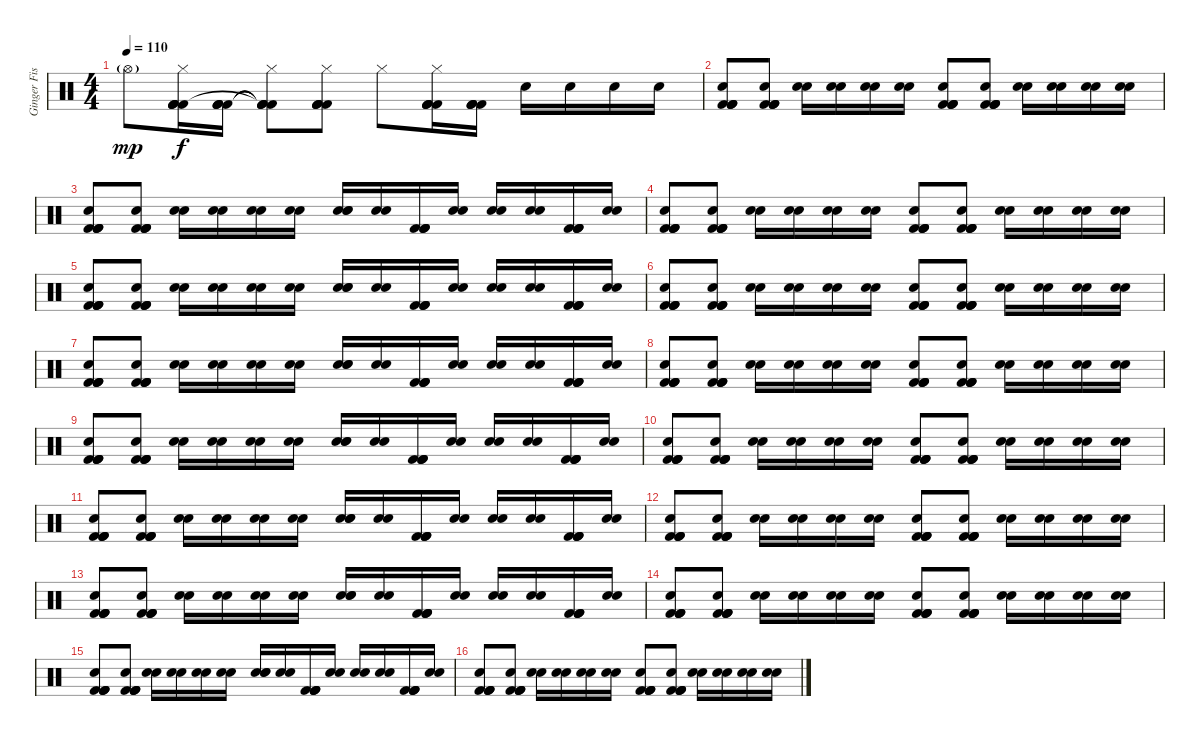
\track ("Ginger Fish" "Ginger Fis") {instrument percussion}
\staff {score}
\articulation defaults
\ts (4 4)
\tempo 110
\clef neutral
\ks c "Hi-Hat (open)"{g}.8{dy mp}
("Hi-Hat (closed)" "Kick (hit) 2" "Kick (hit) 2" "Kick (hit) 2" "Kick (hit) 2").16{dy f} ("Kick (hit) 2" "Kick (hit) 2" "Kick (hit) 2" "Kick (hit) 2").16 ("Hi-Hat (closed)" "Kick (hit) 2"{t} "Kick (hit) 2"{t} "Kick (hit) 2"{t} "Kick (hit) 2"{t}).8 ("Hi-Hat (closed)" "Kick (hit) 2" "Kick (hit) 2" "Kick (hit) 2" "Kick (hit) 2").8 "Hi-Hat (closed)".8 ("Hi-Hat (closed)" "Kick (hit) 2" "Kick (hit) 2" "Kick (hit) 2" "Kick (hit) 2").16 ("Kick (hit) 2" "Kick (hit) 2" "Kick (hit) 2" "Kick (hit) 2").16 "Snare (hit) 2".16 "Snare (hit) 2".16 "Snare (hit) 2".16 "Snare (hit) 2".16 |
("Hand Clap (hit)" "Kick (hit) 2" "Kick (hit) 2" "Kick (hit) 2" "Kick (hit) 2").8 ("Hand Clap (hit)" "Kick (hit) 2" "Kick (hit) 2" "Kick (hit) 2" "Kick (hit) 2").8 ("Electric Snare (hit)" "Electric Snare (hit)").16 ("Electric Snare (hit)" "Electric Snare (hit)").16 ("Electric Snare (hit)" "Electric Snare (hit)").16 ("Electric Snare (hit)" "Electric Snare (hit)").16 ("Hand Clap (hit)" "Kick (hit) 2" "Kick (hit) 2" "Kick (hit) 2" "Kick (hit) 2").8 ("Hand Clap (hit)" "Kick (hit) 2" "Kick (hit) 2" "Kick (hit) 2" "Kick (hit) 2").8 ("Electric Snare (hit)" "Electric Snare (hit)").16 ("Electric Snare (hit)" "Electric Snare (hit)").16 ("Electric Snare (hit)" "Electric Snare (hit)").16 ("Electric Snare (hit)" "Electric Snare (hit)").16 |
("Hand Clap (hit)" "Kick (hit) 2" "Kick (hit) 2" "Kick (hit) 2" "Kick (hit) 2").8 ("Hand Clap (hit)" "Kick (hit) 2" "Kick (hit) 2" "Kick (hit) 2" "Kick (hit) 2").8 ("Electric Snare (hit)" "Electric Snare (hit)").16 ("Electric Snare (hit)" "Electric Snare (hit)").16 ("Electric Snare (hit)" "Electric Snare (hit)").16 ("Electric Snare (hit)" "Electric Snare (hit)").16 ("Hand Clap (hit)" "Electric Snare (hit)" "Electric Snare (hit)").16 ("Electric Snare (hit)" "Electric Snare (hit)").16 ("Kick (hit) 2" "Kick (hit) 2" "Kick (hit) 2" "Kick (hit) 2").16 ("Electric Snare (hit)" "Electric Snare (hit)").16 ("Electric Snare (hit)" "Electric Snare (hit)").16 ("Electric Snare (hit)" "Electric Snare (hit)").16 ("Kick (hit) 2" "Kick (hit) 2" "Kick (hit) 2" "Kick (hit) 2").16 ("Electric Snare (hit)" "Electric Snare (hit)").16 |
("Hand Clap (hit)" "Kick (hit) 2" "Kick (hit) 2" "Kick (hit) 2" "Kick (hit) 2").8 ("Hand Clap (hit)" "Kick (hit) 2" "Kick (hit) 2" "Kick (hit) 2" "Kick (hit) 2").8 ("Electric Snare (hit)" "Electric Snare (hit)").16 ("Electric Snare (hit)" "Electric Snare (hit)").16 ("Electric Snare (hit)" "Electric Snare (hit)").16 ("Electric Snare (hit)" "Electric Snare (hit)").16 ("Hand Clap (hit)" "Kick (hit) 2" "Kick (hit) 2" "Kick (hit) 2" "Kick (hit) 2").8 ("Hand Clap (hit)" "Kick (hit) 2" "Kick (hit) 2" "Kick (hit) 2" "Kick (hit) 2").8 ("Electric Snare (hit)" "Electric Snare (hit)").16 ("Electric Snare (hit)" "Electric Snare (hit)").16 ("Electric Snare (hit)" "Electric Snare (hit)").16 ("Electric Snare (hit)" "Electric Snare (hit)").16 |
("Hand Clap (hit)" "Kick (hit) 2" "Kick (hit) 2" "Kick (hit) 2" "Kick (hit) 2").8 ("Hand Clap (hit)" "Kick (hit) 2" "Kick (hit) 2" "Kick (hit) 2" "Kick (hit) 2").8 ("Electric Snare (hit)" "Electric Snare (hit)").16 ("Electric Snare (hit)" "Electric Snare (hit)").16 ("Electric Snare (hit)" "Electric Snare (hit)").16 ("Electric Snare (hit)" "Electric Snare (hit)").16 ("Hand Clap (hit)" "Electric Snare (hit)" "Electric Snare (hit)").16 ("Electric Snare (hit)" "Electric Snare (hit)").16 ("Kick (hit) 2" "Kick (hit) 2" "Kick (hit) 2" "Kick (hit) 2").16 ("Electric Snare (hit)" "Electric Snare (hit)").16 ("Electric Snare (hit)" "Electric Snare (hit)").16 ("Electric Snare (hit)" "Electric Snare (hit)").16 ("Kick (hit) 2" "Kick (hit) 2" "Kick (hit) 2" "Kick (hit) 2").16 ("Electric Snare (hit)" "Electric Snare (hit)").16 |
("Hand Clap (hit)" "Kick (hit) 2" "Kick (hit) 2" "Kick (hit) 2" "Kick (hit) 2").8 ("Hand Clap (hit)" "Kick (hit) 2" "Kick (hit) 2" "Kick (hit) 2" "Kick (hit) 2").8 ("Electric Snare (hit)" "Electric Snare (hit)").16 ("Electric Snare (hit)" "Electric Snare (hit)").16 ("Electric Snare (hit)" "Electric Snare (hit)").16 ("Electric Snare (hit)" "Electric Snare (hit)").16 ("Hand Clap (hit)" "Kick (hit) 2" "Kick (hit) 2" "Kick (hit) 2" "Kick (hit) 2").8 ("Hand Clap (hit)" "Kick (hit) 2" "Kick (hit) 2" "Kick (hit) 2" "Kick (hit) 2").8 ("Electric Snare (hit)" "Electric Snare (hit)").16 ("Electric Snare (hit)" "Electric Snare (hit)").16 ("Electric Snare (hit)" "Electric Snare (hit)").16 ("Electric Snare (hit)" "Electric Snare (hit)").16 |
("Hand Clap (hit)" "Kick (hit) 2" "Kick (hit) 2" "Kick (hit) 2" "Kick (hit) 2").8 ("Hand Clap (hit)" "Kick (hit) 2" "Kick (hit) 2" "Kick (hit) 2" "Kick (hit) 2").8 ("Electric Snare (hit)" "Electric Snare (hit)").16 ("Electric Snare (hit)" "Electric Snare (hit)").16 ("Electric Snare (hit)" "Electric Snare (hit)").16 ("Electric Snare (hit)" "Electric Snare (hit)").16 ("Hand Clap (hit)" "Electric Snare (hit)" "Electric Snare (hit)").16 ("Electric Snare (hit)" "Electric Snare (hit)").16 ("Kick (hit) 2" "Kick (hit) 2" "Kick (hit) 2" "Kick (hit) 2").16 ("Electric Snare (hit)" "Electric Snare (hit)").16 ("Electric Snare (hit)" "Electric Snare (hit)").16 ("Electric Snare (hit)" "Electric Snare (hit)").16 ("Kick (hit) 2" "Kick (hit) 2" "Kick (hit) 2" "Kick (hit) 2").16 ("Electric Snare (hit)" "Electric Snare (hit)").16 |
("Hand Clap (hit)" "Kick (hit) 2" "Kick (hit) 2" "Kick (hit) 2" "Kick (hit) 2").8 ("Hand Clap (hit)" "Kick (hit) 2" "Kick (hit) 2" "Kick (hit) 2" "Kick (hit) 2").8 ("Electric Snare (hit)" "Electric Snare (hit)").16 ("Electric Snare (hit)" "Electric Snare (hit)").16 ("Electric Snare (hit)" "Electric Snare (hit)").16 ("Electric Snare (hit)" "Electric Snare (hit)").16 ("Hand Clap (hit)" "Kick (hit) 2" "Kick (hit) 2" "Kick (hit) 2" "Kick (hit) 2").8 ("Hand Clap (hit)" "Kick (hit) 2" "Kick (hit) 2" "Kick (hit) 2" "Kick (hit) 2").8 ("Electric Snare (hit)" "Electric Snare (hit)").16 ("Electric Snare (hit)" "Electric Snare (hit)").16 ("Electric Snare (hit)" "Electric Snare (hit)").16 ("Electric Snare (hit)" "Electric Snare (hit)").16 |
("Hand Clap (hit)" "Kick (hit) 2" "Kick (hit) 2" "Kick (hit) 2" "Kick (hit) 2").8 ("Hand Clap (hit)" "Kick (hit) 2" "Kick (hit) 2" "Kick (hit) 2" "Kick (hit) 2").8 ("Electric Snare (hit)" "Electric Snare (hit)").16 ("Electric Snare (hit)" "Electric Snare (hit)").16 ("Electric Snare (hit)" "Electric Snare (hit)").16 ("Electric Snare (hit)" "Electric Snare (hit)").16 ("Hand Clap (hit)" "Electric Snare (hit)" "Electric Snare (hit)").16 ("Electric Snare (hit)" "Electric Snare (hit)").16 ("Kick (hit) 2" "Kick (hit) 2" "Kick (hit) 2" "Kick (hit) 2").16 ("Electric Snare (hit)" "Electric Snare (hit)").16 ("Electric Snare (hit)" "Electric Snare (hit)").16 ("Electric Snare (hit)" "Electric Snare (hit)").16 ("Kick (hit) 2" "Kick (hit) 2" "Kick (hit) 2" "Kick (hit) 2").16 ("Electric Snare (hit)" "Electric Snare (hit)").16 |
("Hand Clap (hit)" "Kick (hit) 2" "Kick (hit) 2" "Kick (hit) 2" "Kick (hit) 2").8 ("Hand Clap (hit)" "Kick (hit) 2" "Kick (hit) 2" "Kick (hit) 2" "Kick (hit) 2").8 ("Electric Snare (hit)" "Electric Snare (hit)").16 ("Electric Snare (hit)" "Electric Snare (hit)").16 ("Electric Snare (hit)" "Electric Snare (hit)").16 ("Electric Snare (hit)" "Electric Snare (hit)").16 ("Hand Clap (hit)" "Kick (hit) 2" "Kick (hit) 2" "Kick (hit) 2" "Kick (hit) 2").8 ("Hand Clap (hit)" "Kick (hit) 2" "Kick (hit) 2" "Kick (hit) 2" "Kick (hit) 2").8 ("Electric Snare (hit)" "Electric Snare (hit)").16 ("Electric Snare (hit)" "Electric Snare (hit)").16 ("Electric Snare (hit)" "Electric Snare (hit)").16 ("Electric Snare (hit)" "Electric Snare (hit)").16 |
("Hand Clap (hit)" "Kick (hit) 2" "Kick (hit) 2" "Kick (hit) 2" "Kick (hit) 2").8 ("Hand Clap (hit)" "Kick (hit) 2" "Kick (hit) 2" "Kick (hit) 2" "Kick (hit) 2").8 ("Electric Snare (hit)" "Electric Snare (hit)").16 ("Electric Snare (hit)" "Electric Snare (hit)").16 ("Electric Snare (hit)" "Electric Snare (hit)").16 ("Electric Snare (hit)" "Electric Snare (hit)").16 ("Hand Clap (hit)" "Electric Snare (hit)" "Electric Snare (hit)").16 ("Electric Snare (hit)" "Electric Snare (hit)").16 ("Kick (hit) 2" "Kick (hit) 2" "Kick (hit) 2" "Kick (hit) 2").16 ("Electric Snare (hit)" "Electric Snare (hit)").16 ("Electric Snare (hit)" "Electric Snare (hit)").16 ("Electric Snare (hit)" "Electric Snare (hit)").16 ("Kick (hit) 2" "Kick (hit) 2" "Kick (hit) 2" "Kick (hit) 2").16 ("Electric Snare (hit)" "Electric Snare (hit)").16 |
("Hand Clap (hit)" "Kick (hit) 2" "Kick (hit) 2" "Kick (hit) 2" "Kick (hit) 2").8 ("Hand Clap (hit)" "Kick (hit) 2" "Kick (hit) 2" "Kick (hit) 2" "Kick (hit) 2").8 ("Electric Snare (hit)" "Electric Snare (hit)").16 ("Electric Snare (hit)" "Electric Snare (hit)").16 ("Electric Snare (hit)" "Electric Snare (hit)").16 ("Electric Snare (hit)" "Electric Snare (hit)").16 ("Hand Clap (hit)" "Kick (hit) 2" "Kick (hit) 2" "Kick (hit) 2" "Kick (hit) 2").8 ("Hand Clap (hit)" "Kick (hit) 2" "Kick (hit) 2" "Kick (hit) 2" "Kick (hit) 2").8 ("Electric Snare (hit)" "Electric Snare (hit)").16 ("Electric Snare (hit)" "Electric Snare (hit)").16 ("Electric Snare (hit)" "Electric Snare (hit)").16 ("Electric Snare (hit)" "Electric Snare (hit)").16 |
("Hand Clap (hit)" "Kick (hit) 2" "Kick (hit) 2" "Kick (hit) 2" "Kick (hit) 2").8 ("Hand Clap (hit)" "Kick (hit) 2" "Kick (hit) 2" "Kick (hit) 2" "Kick (hit) 2").8 ("Electric Snare (hit)" "Electric Snare (hit)").16 ("Electric Snare (hit)" "Electric Snare (hit)").16 ("Electric Snare (hit)" "Electric Snare (hit)").16 ("Electric Snare (hit)" "Electric Snare (hit)").16 ("Hand Clap (hit)" "Electric Snare (hit)" "Electric Snare (hit)").16 ("Electric Snare (hit)" "Electric Snare (hit)").16 ("Kick (hit) 2" "Kick (hit) 2" "Kick (hit) 2" "Kick (hit) 2").16 ("Electric Snare (hit)" "Electric Snare (hit)").16 ("Electric Snare (hit)" "Electric Snare (hit)").16 ("Electric Snare (hit)" "Electric Snare (hit)").16 ("Kick (hit) 2" "Kick (hit) 2" "Kick (hit) 2" "Kick (hit) 2").16 ("Electric Snare (hit)" "Electric Snare (hit)").16 |
("Hand Clap (hit)" "Kick (hit) 2" "Kick (hit) 2" "Kick (hit) 2" "Kick (hit) 2").8 ("Hand Clap (hit)" "Kick (hit) 2" "Kick (hit) 2" "Kick (hit) 2" "Kick (hit) 2").8 ("Electric Snare (hit)" "Electric Snare (hit)").16 ("Electric Snare (hit)" "Electric Snare (hit)").16 ("Electric Snare (hit)" "Electric Snare (hit)").16 ("Electric Snare (hit)" "Electric Snare (hit)").16 ("Hand Clap (hit)" "Kick (hit) 2" "Kick (hit) 2" "Kick (hit) 2" "Kick (hit) 2").8 ("Hand Clap (hit)" "Kick (hit) 2" "Kick (hit) 2" "Kick (hit) 2" "Kick (hit) 2").8 ("Electric Snare (hit)" "Electric Snare (hit)").16 ("Electric Snare (hit)" "Electric Snare (hit)").16 ("Electric Snare (hit)" "Electric Snare (hit)").16 ("Electric Snare (hit)" "Electric Snare (hit)").16 |
("Hand Clap (hit)" "Kick (hit) 2" "Kick (hit) 2" "Kick (hit) 2" "Kick (hit) 2").8 ("Hand Clap (hit)" "Kick (hit) 2" "Kick (hit) 2" "Kick (hit) 2" "Kick (hit) 2").8 ("Electric Snare (hit)" "Electric Snare (hit)").16 ("Electric Snare (hit)" "Electric Snare (hit)").16 ("Electric Snare (hit)" "Electric Snare (hit)").16 ("Electric Snare (hit)" "Electric Snare (hit)").16 ("Hand Clap (hit)" "Electric Snare (hit)" "Electric Snare (hit)").16 ("Electric Snare (hit)" "Electric Snare (hit)").16 ("Kick (hit) 2" "Kick (hit) 2" "Kick (hit) 2" "Kick (hit) 2").16 ("Electric Snare (hit)" "Electric Snare (hit)").16 ("Electric Snare (hit)" "Electric Snare (hit)").16 ("Electric Snare (hit)" "Electric Snare (hit)").16 ("Kick (hit) 2" "Kick (hit) 2" "Kick (hit) 2" "Kick (hit) 2").16 ("Electric Snare (hit)" "Electric Snare (hit)").16 |
("Hand Clap (hit)" "Kick (hit) 2" "Kick (hit) 2" "Kick (hit) 2" "Kick (hit) 2").8 ("Hand Clap (hit)" "Kick (hit) 2" "Kick (hit) 2" "Kick (hit) 2" "Kick (hit) 2").8 ("Electric Snare (hit)" "Electric Snare (hit)").16 ("Electric Snare (hit)" "Electric Snare (hit)").16 ("Electric Snare (hit)" "Electric Snare (hit)").16 ("Electric Snare (hit)" "Electric Snare (hit)").16 ("Hand Clap (hit)" "Kick (hit) 2" "Kick (hit) 2" "Kick (hit) 2" "Kick (hit) 2").8 ("Hand Clap (hit)" "Kick (hit) 2" "Kick (hit) 2" "Kick (hit) 2" "Kick (hit) 2").8 ("Electric Snare (hit)" "Electric Snare (hit)").16 ("Electric Snare (hit)" "Electric Snare (hit)").16 ("Electric Snare (hit)" "Electric Snare (hit)").16 ("Electric Snare (hit)" "Electric Snare (hit)").16
